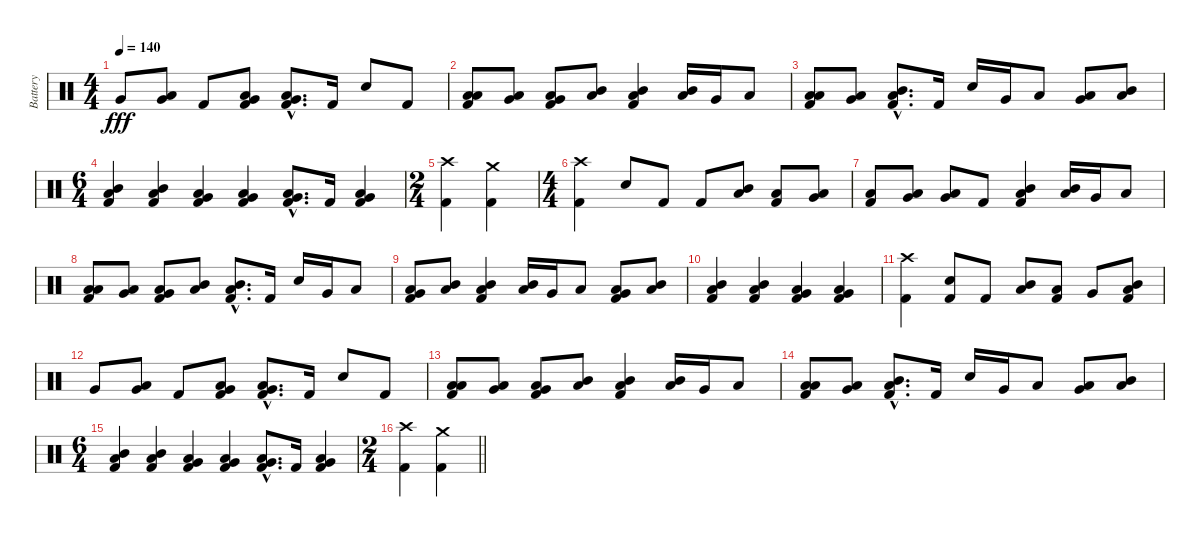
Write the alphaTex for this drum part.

\track ("Battery" "Battery") {instrument percussion}
\staff {score}
\articulation defaults
\ts (4 4)
\tempo 140
\clef neutral
\ks c "Very Low Tom (hit)".8{dy fff}
("Low Tom (hit)" "Very Low Tom (hit)").8 "Kick (hit) 2".8 ("Very Low Tom (hit)" "Low Floor Tom (hit)" "Kick (hit) 2").8 ("Very Low Tom (hit)"{hac} "Low Floor Tom (hit)"{hac} "Kick (hit) 2"{hac}).8{d} "Kick (hit) 2".16 "Electric Snare (hit)".8 "Kick (hit) 2".8 |
("Low Floor Tom (hit)" "Low Floor Tom (hit)" "Kick (hit) 2").8 ("Very Low Tom (hit)" "Low Floor Tom (hit)").8 ("Low Tom (hit)" "Very Low Tom (hit)" "Kick (hit) 2").8 ("Mid Tom (hit)" "Low Tom (hit)").8 ("Mid Tom (hit)" "Low Tom (hit)" "Kick (hit) 2").4 ("Mid Tom (hit)" "Low Tom (hit)").16 "Very Low Tom (hit)".16 "Low Floor Tom (hit)".8 |
("Low Floor Tom (hit)" "Low Floor Tom (hit)" "Kick (hit) 2").8 ("Very Low Tom (hit)" "Low Floor Tom (hit)").8 ("Mid Tom (hit)"{hac} "Low Tom (hit)"{hac} "Kick (hit) 2"{hac}).8{d} "Kick (hit) 2".16 "Electric Snare (hit)".16 "Very Low Tom (hit)".16 "Low Floor Tom (hit)".8 ("Low Tom (hit)" "Very Low Tom (hit)").8 ("Mid Tom (hit)" "Low Tom (hit)").8 |
\ts (6 4)
("Mid Tom (hit)" "Low Tom (hit)" "Kick (hit) 2").4 ("Mid Tom (hit)" "Low Tom (hit)" "Kick (hit) 2").4 ("Low Tom (hit)" "Very Low Tom (hit)" "Kick (hit) 2").4 ("Low Tom (hit)" "Very Low Tom (hit)" "Kick (hit) 2").4 ("Very Low Tom (hit)"{hac} "Low Floor Tom (hit)"{hac} "Kick (hit) 2"{hac}).8{d} "Kick (hit) 2".16 ("Very Low Tom (hit)" "Low Floor Tom (hit)" "Kick (hit) 2").4 |
\ts (2 4)
("Crash high (hit)" "Kick (hit) 2").4 ("Crash medium (hit)" "Kick (hit) 2").4 |
\ts (4 4)
("Crash high (hit)" "Kick (hit) 2").4 "Electric Snare (hit)".8 "Kick (hit) 2".8 "Kick (hit) 2".8 ("Mid Tom (hit)" "Low Tom (hit)").8 ("Low Floor Tom (hit)" "Kick (hit) 2").8 ("Low Tom (hit)" "Very Low Tom (hit)").8 |
("Low Floor Tom (hit)" "Kick (hit) 2").8 ("Low Tom (hit)" "Very Low Tom (hit)").8 ("Low Tom (hit)" "Very Low Tom (hit)").8 "Kick (hit) 2".8 ("Mid Tom (hit)" "Low Tom (hit)" "Kick (hit) 2").4 ("Mid Tom (hit)" "Low Tom (hit)").16 "Very Low Tom (hit)".16 "Low Floor Tom (hit)".8 |
("Low Floor Tom (hit)" "Low Floor Tom (hit)" "Kick (hit) 2").8 ("Very Low Tom (hit)" "Low Floor Tom (hit)").8 ("Low Tom (hit)" "Very Low Tom (hit)" "Kick (hit) 2").8 ("Mid Tom (hit)" "Low Tom (hit)").8 ("Mid Tom (hit)"{hac} "Low Tom (hit)"{hac} "Kick (hit) 2"{hac}).8{d} "Kick (hit) 2".16 "Electric Snare (hit)".16 "Very Low Tom (hit)".16 "Low Floor Tom (hit)".8 |
("Low Tom (hit)" "Very Low Tom (hit)" "Kick (hit) 2").8 ("Mid Tom (hit)" "Low Tom (hit)").8 ("Mid Tom (hit)" "Low Tom (hit)" "Kick (hit) 2").4 ("Mid Tom (hit)" "Low Tom (hit)").16 "Very Low Tom (hit)".16 "Low Floor Tom (hit)".8 ("Low Tom (hit)" "Very Low Tom (hit)" "Kick (hit) 2").8 ("Mid Tom (hit)" "Low Tom (hit)").8 |
("Mid Tom (hit)" "Low Tom (hit)" "Kick (hit) 2").4 ("Mid Tom (hit)" "Low Tom (hit)" "Kick (hit) 2").4 ("Low Tom (hit)" "Very Low Tom (hit)" "Kick (hit) 2").4 ("Low Tom (hit)" "Very Low Tom (hit)" "Kick (hit) 2").4 |
("Crash high (hit)" "Kick (hit) 2").4 ("Electric Snare (hit)" "Kick (hit) 2").8 "Kick (hit) 2".8 ("Mid Tom (hit)" "Low Tom (hit)").8 ("Low Tom (hit)" "Kick (hit) 2").8 "Very Low Tom (hit)".8 ("Mid Tom (hit)" "Low Tom (hit)" "Kick (hit) 2").8 |
"Very Low Tom (hit)".8 ("Low Tom (hit)" "Very Low Tom (hit)").8 "Kick (hit) 2".8 ("Very Low Tom (hit)" "Low Floor Tom (hit)" "Kick (hit) 2").8 ("Very Low Tom (hit)"{hac} "Low Floor Tom (hit)"{hac} "Kick (hit) 2"{hac}).8{d} "Kick (hit) 2".16 "Electric Snare (hit)".8 "Kick (hit) 2".8 |
("Low Floor Tom (hit)" "Low Floor Tom (hit)" "Kick (hit) 2").8 ("Very Low Tom (hit)" "Low Floor Tom (hit)").8 ("Low Tom (hit)" "Very Low Tom (hit)" "Kick (hit) 2").8 ("Mid Tom (hit)" "Low Tom (hit)").8 ("Mid Tom (hit)" "Low Tom (hit)" "Kick (hit) 2").4 ("Mid Tom (hit)" "Low Tom (hit)").16 "Very Low Tom (hit)".16 "Low Floor Tom (hit)".8 |
("Low Floor Tom (hit)" "Low Floor Tom (hit)" "Kick (hit) 2").8 ("Very Low Tom (hit)" "Low Floor Tom (hit)").8 ("Mid Tom (hit)"{hac} "Low Tom (hit)"{hac} "Kick (hit) 2"{hac}).8{d} "Kick (hit) 2".16 "Electric Snare (hit)".16 "Very Low Tom (hit)".16 "Low Floor Tom (hit)".8 ("Low Tom (hit)" "Very Low Tom (hit)").8 ("Mid Tom (hit)" "Low Tom (hit)").8 |
\ts (6 4)
("Mid Tom (hit)" "Low Tom (hit)" "Kick (hit) 2").4 ("Mid Tom (hit)" "Low Tom (hit)" "Kick (hit) 2").4 ("Low Tom (hit)" "Very Low Tom (hit)" "Kick (hit) 2").4 ("Low Tom (hit)" "Very Low Tom (hit)" "Kick (hit) 2").4 ("Very Low Tom (hit)"{hac} "Low Floor Tom (hit)"{hac} "Kick (hit) 2"{hac}).8{d} "Kick (hit) 2".16 ("Very Low Tom (hit)" "Low Floor Tom (hit)" "Kick (hit) 2").4 |
\ts (2 4)
\barLineRight lightlight
("Crash high (hit)" "Kick (hit) 2").4 ("Crash medium (hit)" "Kick (hit) 2").4
